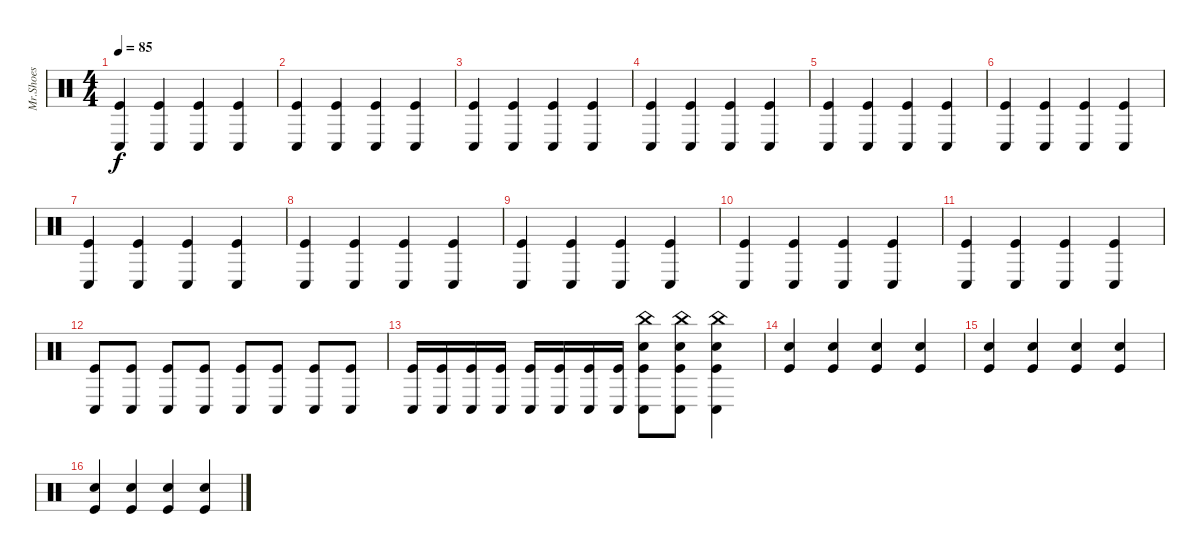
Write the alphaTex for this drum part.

\track ("Mr.Shoes" "Mr.Shoes") {instrument percussion}
\staff {score}
\articulation defaults
\ts (4 4)
\tempo 85
\clef neutral
\ks c
("Kick (hit)" "Conga low (hit)").4{dy f} ("Kick (hit)" "Conga low (hit)").4 ("Kick (hit)" "Conga low (hit)").4 ("Kick (hit)" "Conga low (hit)").4 |
("Kick (hit)" "Conga low (hit)").4 ("Kick (hit)" "Conga low (hit)").4 ("Kick (hit)" "Conga low (hit)").4 ("Kick (hit)" "Conga low (hit)").4 |
("Kick (hit)" "Conga low (hit)").4 ("Kick (hit)" "Conga low (hit)").4 ("Kick (hit)" "Conga low (hit)").4 ("Kick (hit)" "Conga low (hit)").4 |
("Kick (hit)" "Conga low (hit)").4 ("Kick (hit)" "Conga low (hit)").4 ("Kick (hit)" "Conga low (hit)").4 ("Kick (hit)" "Conga low (hit)").4 |
("Kick (hit)" "Conga low (hit)").4 ("Kick (hit)" "Conga low (hit)").4 ("Kick (hit)" "Conga low (hit)").4 ("Kick (hit)" "Conga low (hit)").4 |
("Kick (hit)" "Conga low (hit)").4 ("Kick (hit)" "Conga low (hit)").4 ("Kick (hit)" "Conga low (hit)").4 ("Kick (hit)" "Conga low (hit)").4 |
("Kick (hit)" "Conga low (hit)").4 ("Kick (hit)" "Conga low (hit)").4 ("Kick (hit)" "Conga low (hit)").4 ("Kick (hit)" "Conga low (hit)").4 |
("Kick (hit)" "Conga low (hit)").4 ("Kick (hit)" "Conga low (hit)").4 ("Kick (hit)" "Conga low (hit)").4 ("Kick (hit)" "Conga low (hit)").4 |
("Kick (hit)" "Conga low (hit)").4 ("Kick (hit)" "Conga low (hit)").4 ("Kick (hit)" "Conga low (hit)").4 ("Kick (hit)" "Conga low (hit)").4 |
("Kick (hit)" "Conga low (hit)").4 ("Kick (hit)" "Conga low (hit)").4 ("Kick (hit)" "Conga low (hit)").4 ("Kick (hit)" "Conga low (hit)").4 |
("Kick (hit)" "Conga low (hit)").4 ("Kick (hit)" "Conga low (hit)").4 ("Kick (hit)" "Conga low (hit)").4 ("Kick (hit)" "Conga low (hit)").4 |
("Kick (hit)" "Conga low (hit)").8 ("Kick (hit)" "Conga low (hit)").8 ("Kick (hit)" "Conga low (hit)").8 ("Kick (hit)" "Conga low (hit)").8 ("Kick (hit)" "Conga low (hit)").8 ("Kick (hit)" "Conga low (hit)").8 ("Kick (hit)" "Conga low (hit)").8 ("Kick (hit)" "Conga low (hit)").8 |
("Kick (hit)" "Conga low (hit)").16 ("Kick (hit)" "Conga low (hit)").16 ("Kick (hit)" "Conga low (hit)").16 ("Kick (hit)" "Conga low (hit)").16 ("Kick (hit)" "Conga low (hit)").16 ("Kick (hit)" "Conga low (hit)").16 ("Kick (hit)" "Conga low (hit)").16 ("Kick (hit)" "Conga low (hit)").16 ("Electric Snare (hit)" "China (hit)" "Kick (hit)" "Conga low (hit)").8 ("Electric Snare (hit)" "China (hit)" "Kick (hit)" "Conga low (hit)").8 ("Electric Snare (hit)" "China (hit)" "Kick (hit)" "Conga low (hit)").4 |
("Snare (hit) 2" "Kick (hit)").4 ("Snare (hit) 2" "Kick (hit)").4 ("Snare (hit) 2" "Kick (hit)").4 ("Snare (hit) 2" "Kick (hit)").4 |
("Snare (hit) 2" "Kick (hit)").4 ("Snare (hit) 2" "Kick (hit)").4 ("Snare (hit) 2" "Kick (hit)").4 ("Snare (hit) 2" "Kick (hit)").4 |
("Snare (hit) 2" "Kick (hit)").4 ("Snare (hit) 2" "Kick (hit)").4 ("Snare (hit) 2" "Kick (hit)").4 ("Snare (hit) 2" "Kick (hit)").4
